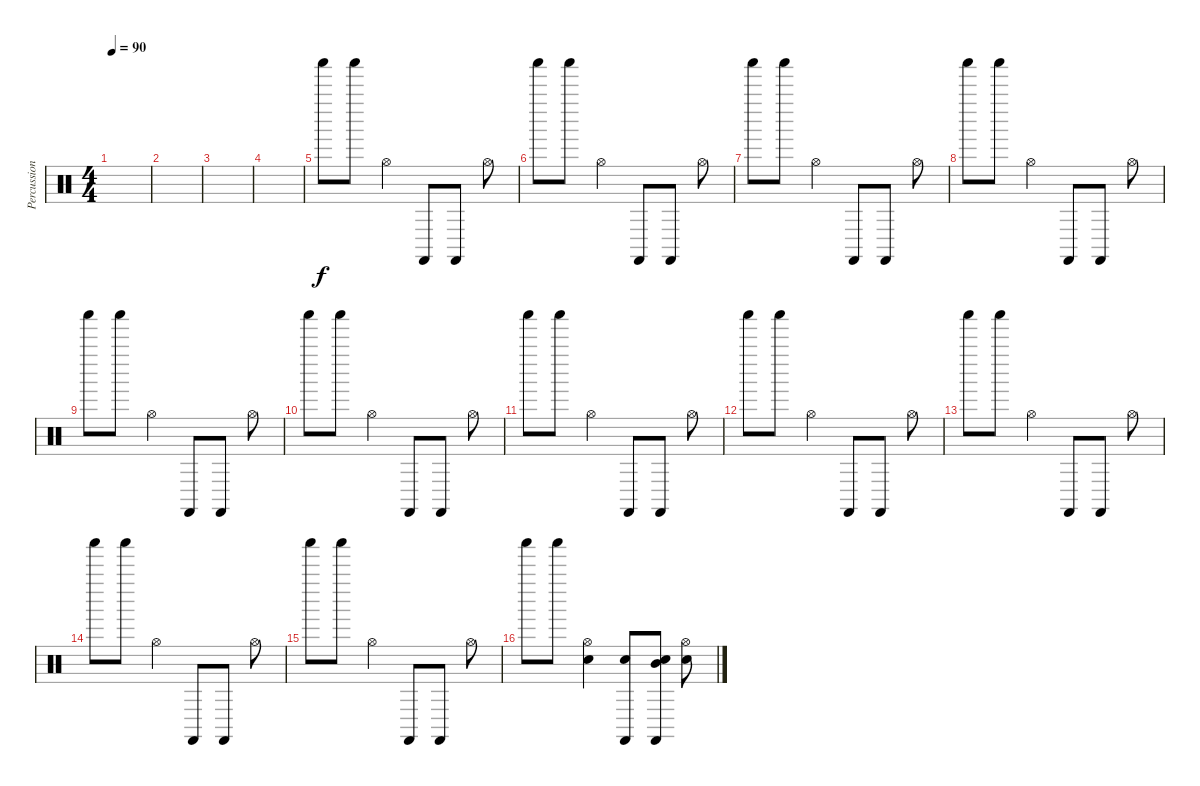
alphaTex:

\track ("Percussion" "Percussion") {instrument percussion}
\staff {score}
\articulation defaults
\ts (4 4)
\tempo 90
\clef neutral
\ks c
|
|
|
|
"Shaker (hit)".8 "Shaker (hit)".8 "Hi-Hat (open)".4 "Castanets (hit)".8 "Castanets (hit)".8 "Hi-Hat (open)".8 |
"Shaker (hit)".8 "Shaker (hit)".8 "Hi-Hat (open)".4 "Castanets (hit)".8 "Castanets (hit)".8 "Hi-Hat (open)".8 |
"Shaker (hit)".8 "Shaker (hit)".8 "Hi-Hat (open)".4 "Castanets (hit)".8 "Castanets (hit)".8 "Hi-Hat (open)".8 |
"Shaker (hit)".8 "Shaker (hit)".8 "Hi-Hat (open)".4 "Castanets (hit)".8 "Castanets (hit)".8 "Hi-Hat (open)".8 |
"Shaker (hit)".8 "Shaker (hit)".8 "Hi-Hat (open)".4 "Castanets (hit)".8 "Castanets (hit)".8 "Hi-Hat (open)".8 |
"Shaker (hit)".8 "Shaker (hit)".8 "Hi-Hat (open)".4 "Castanets (hit)".8 "Castanets (hit)".8 "Hi-Hat (open)".8 |
"Shaker (hit)".8 "Shaker (hit)".8 "Hi-Hat (open)".4 "Castanets (hit)".8 "Castanets (hit)".8 "Hi-Hat (open)".8 |
"Shaker (hit)".8 "Shaker (hit)".8 "Hi-Hat (open)".4 "Castanets (hit)".8 "Castanets (hit)".8 "Hi-Hat (open)".8 |
"Shaker (hit)".8 "Shaker (hit)".8 "Hi-Hat (open)".4 "Castanets (hit)".8 "Castanets (hit)".8 "Hi-Hat (open)".8 |
"Shaker (hit)".8 "Shaker (hit)".8 "Hi-Hat (open)".4 "Castanets (hit)".8 "Castanets (hit)".8 "Hi-Hat (open)".8 |
"Shaker (hit)".8 "Shaker (hit)".8 "Hi-Hat (open)".4 "Castanets (hit)".8 "Castanets (hit)".8 "Hi-Hat (open)".8 |
"Shaker (hit)".8 "Shaker (hit)".8 ("Hi-Hat (open)" "Snare (hit) 2").4 ("Castanets (hit)" "Snare (hit) 2").8 ("Castanets (hit)" "Snare (hit) 2" "Mid Tom (hit)").8 ("Hi-Hat (open)" "Snare (hit) 2").8
